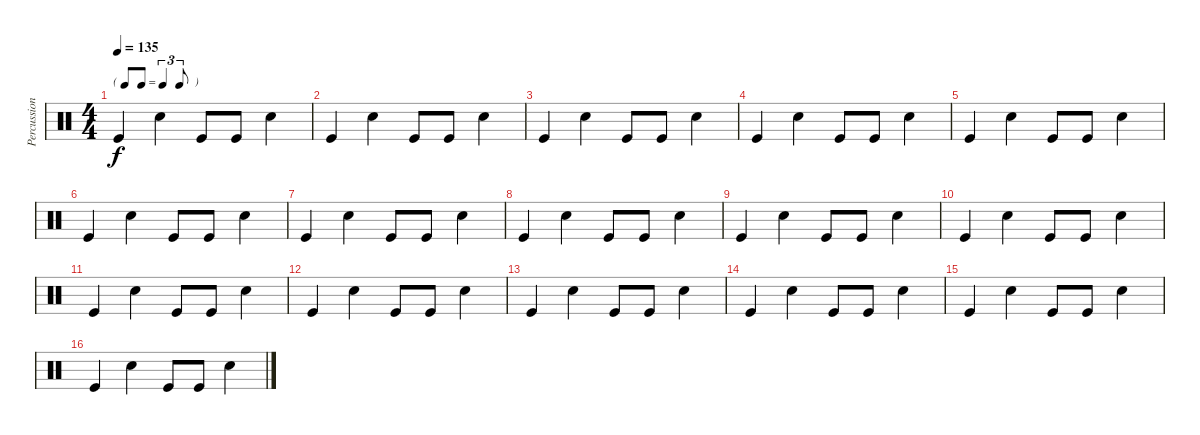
\track ("Percussions" "Percussion") {instrument percussion}
\staff {score}
\articulation defaults
\ts (4 4)
\tf triplet8th
\tempo 135
\clef neutral
\ks c "Kick (hit)".4{dy f} "Snare (hit) 2".4 "Kick (hit)".8 "Kick (hit)".8 "Snare (hit) 2".4
|
"Kick (hit)".4 "Snare (hit) 2".4 "Kick (hit)".8 "Kick (hit)".8 "Snare (hit) 2".4 |
"Kick (hit)".4 "Snare (hit) 2".4 "Kick (hit)".8 "Kick (hit)".8 "Snare (hit) 2".4 |
"Kick (hit)".4 "Snare (hit) 2".4 "Kick (hit)".8 "Kick (hit)".8 "Snare (hit) 2".4 |
"Kick (hit)".4 "Snare (hit) 2".4 "Kick (hit)".8 "Kick (hit)".8 "Snare (hit) 2".4 |
"Kick (hit)".4 "Snare (hit) 2".4 "Kick (hit)".8 "Kick (hit)".8 "Snare (hit) 2".4 |
"Kick (hit)".4 "Snare (hit) 2".4 "Kick (hit)".8 "Kick (hit)".8 "Snare (hit) 2".4 |
"Kick (hit)".4 "Snare (hit) 2".4 "Kick (hit)".8 "Kick (hit)".8 "Snare (hit) 2".4 |
"Kick (hit)".4 "Snare (hit) 2".4 "Kick (hit)".8 "Kick (hit)".8 "Snare (hit) 2".4 |
"Kick (hit)".4 "Snare (hit) 2".4 "Kick (hit)".8 "Kick (hit)".8 "Snare (hit) 2".4 |
"Kick (hit)".4 "Snare (hit) 2".4 "Kick (hit)".8 "Kick (hit)".8 "Snare (hit) 2".4 |
"Kick (hit)".4 "Snare (hit) 2".4 "Kick (hit)".8 "Kick (hit)".8 "Snare (hit) 2".4 |
"Kick (hit)".4 "Snare (hit) 2".4 "Kick (hit)".8 "Kick (hit)".8 "Snare (hit) 2".4 |
"Kick (hit)".4 "Snare (hit) 2".4 "Kick (hit)".8 "Kick (hit)".8 "Snare (hit) 2".4 |
"Kick (hit)".4 "Snare (hit) 2".4 "Kick (hit)".8 "Kick (hit)".8 "Snare (hit) 2".4 |
"Kick (hit)".4 "Snare (hit) 2".4 "Kick (hit)".8 "Kick (hit)".8 "Snare (hit) 2".4
